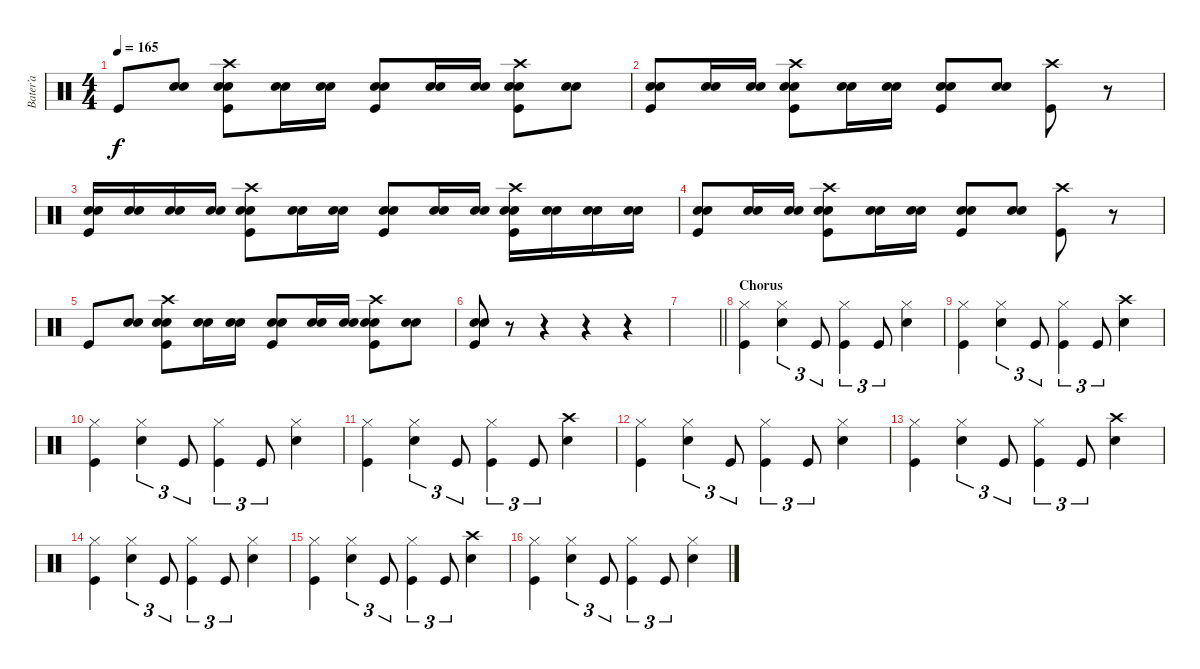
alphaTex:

\track ("Bater’a" "Bater’a") {instrument percussion}
\staff {score}
\articulation defaults
\ts (4 4)
\tempo 165
\clef neutral
\ks c "Kick (hit)".8{dy f}
("Snare (hit) 2" "Electric Snare (hit)").8 ("Snare (hit) 2" "Electric Snare (hit)" "Kick (hit)" "Crash high (hit)").8 ("Snare (hit) 2" "Electric Snare (hit)").16 ("Snare (hit) 2" "Electric Snare (hit)").16 ("Snare (hit) 2" "Electric Snare (hit)" "Kick (hit)").8 ("Snare (hit) 2" "Electric Snare (hit)").16 ("Snare (hit) 2" "Electric Snare (hit)").16 ("Snare (hit) 2" "Electric Snare (hit)" "Kick (hit)" "Crash high (hit)").8 ("Snare (hit) 2" "Electric Snare (hit)").8 |
("Snare (hit) 2" "Electric Snare (hit)" "Kick (hit)").8 ("Snare (hit) 2" "Electric Snare (hit)").16 ("Snare (hit) 2" "Electric Snare (hit)").16 ("Snare (hit) 2" "Electric Snare (hit)" "Kick (hit)" "Crash high (hit)").8 ("Snare (hit) 2" "Electric Snare (hit)").16 ("Snare (hit) 2" "Electric Snare (hit)").16 ("Snare (hit) 2" "Electric Snare (hit)" "Kick (hit)").8 ("Snare (hit) 2" "Electric Snare (hit)").8 ("Kick (hit)" "Crash high (hit)").8 r.8 |
("Snare (hit) 2" "Electric Snare (hit)" "Kick (hit)").16 ("Snare (hit) 2" "Electric Snare (hit)").16 ("Snare (hit) 2" "Electric Snare (hit)").16 ("Snare (hit) 2" "Electric Snare (hit)").16 ("Snare (hit) 2" "Electric Snare (hit)" "Kick (hit)" "Crash high (hit)").8 ("Snare (hit) 2" "Electric Snare (hit)").16 ("Snare (hit) 2" "Electric Snare (hit)").16 ("Snare (hit) 2" "Electric Snare (hit)" "Kick (hit)").8 ("Snare (hit) 2" "Electric Snare (hit)").16 ("Snare (hit) 2" "Electric Snare (hit)").16 ("Snare (hit) 2" "Electric Snare (hit)" "Kick (hit)" "Crash high (hit)").16 ("Snare (hit) 2" "Electric Snare (hit)").16 ("Snare (hit) 2" "Electric Snare (hit)").16 ("Snare (hit) 2" "Electric Snare (hit)").16 |
("Snare (hit) 2" "Electric Snare (hit)" "Kick (hit)").8 ("Snare (hit) 2" "Electric Snare (hit)").16 ("Snare (hit) 2" "Electric Snare (hit)").16 ("Snare (hit) 2" "Electric Snare (hit)" "Kick (hit)" "Crash high (hit)").8 ("Snare (hit) 2" "Electric Snare (hit)").16 ("Snare (hit) 2" "Electric Snare (hit)").16 ("Snare (hit) 2" "Electric Snare (hit)" "Kick (hit)").8 ("Snare (hit) 2" "Electric Snare (hit)").8 ("Kick (hit)" "Crash high (hit)").8 r.8 |
"Kick (hit)".8 ("Snare (hit) 2" "Electric Snare (hit)").8 ("Snare (hit) 2" "Electric Snare (hit)" "Kick (hit)" "Crash high (hit)").8 ("Snare (hit) 2" "Electric Snare (hit)").16 ("Snare (hit) 2" "Electric Snare (hit)").16 ("Snare (hit) 2" "Electric Snare (hit)" "Kick (hit)").8 ("Snare (hit) 2" "Electric Snare (hit)").16 ("Snare (hit) 2" "Electric Snare (hit)").16 ("Snare (hit) 2" "Electric Snare (hit)" "Kick (hit)" "Crash high (hit)").8 ("Snare (hit) 2" "Electric Snare (hit)").8 |
("Snare (hit) 2" "Electric Snare (hit)" "Kick (hit)").8 r.8 r.4 r.4 r.4 |
\barLineRight lightlight
|
\section ("" "Chorus")
("Hi-Hat (closed)" "Kick (hit)").4 ("Hi-Hat (closed)" "Snare (hit) 2").4{tu (3 2)} "Kick (hit)".8{tu (3 2)} ("Hi-Hat (closed)" "Kick (hit)").4{tu (3 2)} "Kick (hit)".8{tu (3 2)} ("Hi-Hat (closed)" "Snare (hit) 2").4 |
("Hi-Hat (closed)" "Kick (hit)").4 ("Hi-Hat (closed)" "Snare (hit) 2").4{tu (3 2)} "Kick (hit)".8{tu (3 2)} ("Hi-Hat (closed)" "Kick (hit)").4{tu (3 2)} "Kick (hit)".8{tu (3 2)} ("Crash high (hit)" "Snare (hit) 2").4 |
("Hi-Hat (closed)" "Kick (hit)").4 ("Hi-Hat (closed)" "Snare (hit) 2").4{tu (3 2)} "Kick (hit)".8{tu (3 2)} ("Hi-Hat (closed)" "Kick (hit)").4{tu (3 2)} "Kick (hit)".8{tu (3 2)} ("Hi-Hat (closed)" "Snare (hit) 2").4 |
("Hi-Hat (closed)" "Kick (hit)").4 ("Hi-Hat (closed)" "Snare (hit) 2").4{tu (3 2)} "Kick (hit)".8{tu (3 2)} ("Hi-Hat (closed)" "Kick (hit)").4{tu (3 2)} "Kick (hit)".8{tu (3 2)} ("Crash high (hit)" "Snare (hit) 2").4 |
("Hi-Hat (closed)" "Kick (hit)").4 ("Hi-Hat (closed)" "Snare (hit) 2").4{tu (3 2)} "Kick (hit)".8{tu (3 2)} ("Hi-Hat (closed)" "Kick (hit)").4{tu (3 2)} "Kick (hit)".8{tu (3 2)} ("Hi-Hat (closed)" "Snare (hit) 2").4 |
("Hi-Hat (closed)" "Kick (hit)").4 ("Hi-Hat (closed)" "Snare (hit) 2").4{tu (3 2)} "Kick (hit)".8{tu (3 2)} ("Hi-Hat (closed)" "Kick (hit)").4{tu (3 2)} "Kick (hit)".8{tu (3 2)} ("Crash high (hit)" "Snare (hit) 2").4 |
("Hi-Hat (closed)" "Kick (hit)").4 ("Hi-Hat (closed)" "Snare (hit) 2").4{tu (3 2)} "Kick (hit)".8{tu (3 2)} ("Hi-Hat (closed)" "Kick (hit)").4{tu (3 2)} "Kick (hit)".8{tu (3 2)} ("Hi-Hat (closed)" "Snare (hit) 2").4 |
("Hi-Hat (closed)" "Kick (hit)").4 ("Hi-Hat (closed)" "Snare (hit) 2").4{tu (3 2)} "Kick (hit)".8{tu (3 2)} ("Hi-Hat (closed)" "Kick (hit)").4{tu (3 2)} "Kick (hit)".8{tu (3 2)} ("Crash high (hit)" "Snare (hit) 2").4 |
("Hi-Hat (closed)" "Kick (hit)").4 ("Hi-Hat (closed)" "Snare (hit) 2").4{tu (3 2)} "Kick (hit)".8{tu (3 2)} ("Hi-Hat (closed)" "Kick (hit)").4{tu (3 2)} "Kick (hit)".8{tu (3 2)} ("Hi-Hat (closed)" "Snare (hit) 2").4
